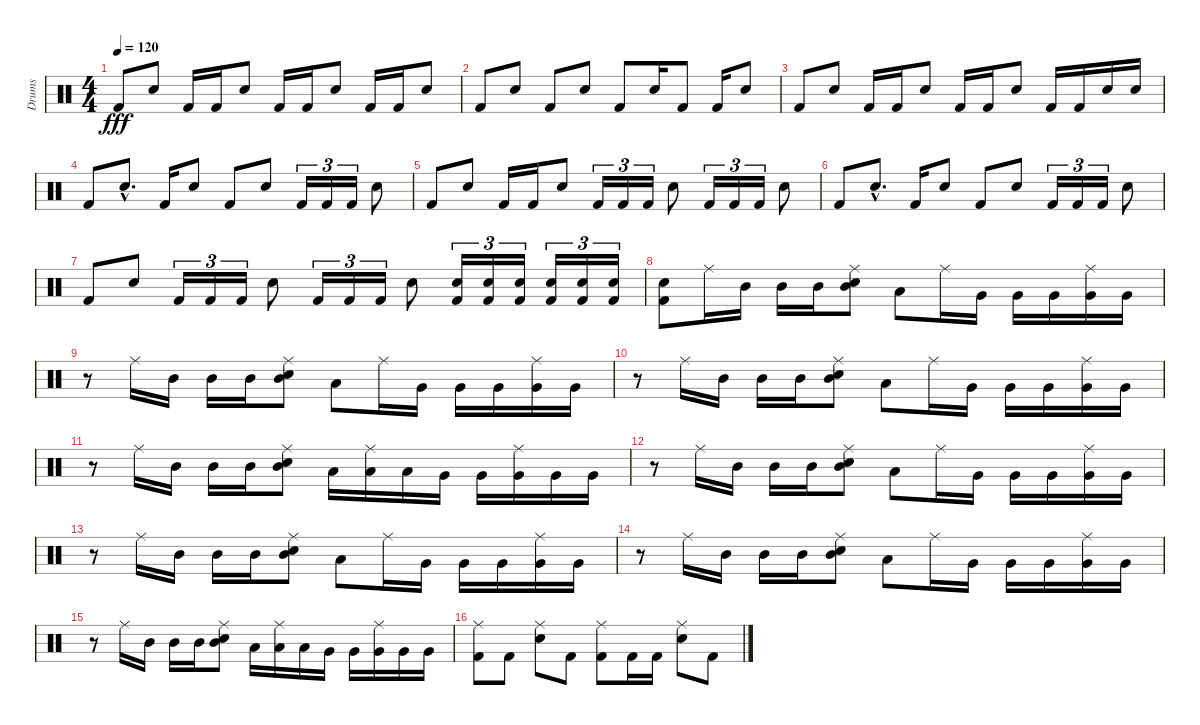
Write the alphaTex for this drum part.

\track ("Drums" "Drums") {instrument percussion}
\staff {score}
\articulation defaults
\ts (4 4)
\tempo 120
\clef neutral
\ks c "Kick (hit) 2".8{dy fff} "Snare (hit) 2".8 "Kick (hit) 2".16 "Kick (hit) 2".16 "Snare (hit) 2".8 "Kick (hit) 2".16 "Kick (hit) 2".16 "Snare (hit) 2".8 "Kick (hit) 2".16 "Kick (hit) 2".16 "Snare (hit) 2".8
|
"Kick (hit) 2".8 "Snare (hit) 2".8 "Kick (hit) 2".8 "Snare (hit) 2".8 "Kick (hit) 2".8 "Snare (hit) 2".16 "Kick (hit) 2".8 "Kick (hit) 2".16 "Snare (hit) 2".8 |
"Kick (hit) 2".8 "Snare (hit) 2".8 "Kick (hit) 2".16 "Kick (hit) 2".16 "Snare (hit) 2".8 "Kick (hit) 2".16 "Kick (hit) 2".16 "Snare (hit) 2".8 "Kick (hit) 2".16 "Kick (hit) 2".16 "Snare (hit) 2".16 "Snare (hit) 2".16 |
"Kick (hit) 2".8 "Snare (hit) 2"{hac}.8{d} "Kick (hit) 2".16 "Snare (hit) 2".8 "Kick (hit) 2".8 "Snare (hit) 2".8 "Kick (hit) 2".16{tu (3 2)} "Kick (hit) 2".16{tu (3 2)} "Kick (hit) 2".16{tu (3 2)} "Snare (hit) 2".8 |
"Kick (hit) 2".8 "Snare (hit) 2".8 "Kick (hit) 2".16 "Kick (hit) 2".16 "Snare (hit) 2".8 "Kick (hit) 2".16{tu (3 2)} "Kick (hit) 2".16{tu (3 2)} "Kick (hit) 2".16{tu (3 2)} "Snare (hit) 2".8 "Kick (hit) 2".16{tu (3 2)} "Kick (hit) 2".16{tu (3 2)} "Kick (hit) 2".16{tu (3 2)} "Snare (hit) 2".8 |
"Kick (hit) 2".8 "Snare (hit) 2"{hac}.8{d} "Kick (hit) 2".16 "Snare (hit) 2".8 "Kick (hit) 2".8 "Snare (hit) 2".8 "Kick (hit) 2".16{tu (3 2)} "Kick (hit) 2".16{tu (3 2)} "Kick (hit) 2".16{tu (3 2)} "Snare (hit) 2".8 |
"Kick (hit) 2".8 "Snare (hit) 2".8 "Kick (hit) 2".16{tu (3 2)} "Kick (hit) 2".16{tu (3 2)} "Kick (hit) 2".16{tu (3 2)} "Snare (hit) 2".8 "Kick (hit) 2".16{tu (3 2)} "Kick (hit) 2".16{tu (3 2)} "Kick (hit) 2".16{tu (3 2)} "Snare (hit) 2".8 ("Snare (hit) 2" "Kick (hit) 2").16{tu (3 2)} ("Snare (hit) 2" "Kick (hit) 2").16{tu (3 2)} ("Snare (hit) 2" "Kick (hit) 2").16{tu (3 2)} ("Snare (hit) 2" "Kick (hit) 2").16{tu (3 2)} ("Snare (hit) 2" "Kick (hit) 2").16{tu (3 2)} ("Snare (hit) 2" "Kick (hit) 2").16{tu (3 2)} |
("Snare (hit) 2" "Kick (hit) 2").8 "Ride (middle)".16 "Mid Tom (hit)".16 "Mid Tom (hit)".16 "Mid Tom (hit)".16 ("Ride (middle)" "Snare (hit) 2" "Mid Tom (hit)").8 "Low Tom (hit)".8 "Ride (middle)".16 "Very Low Tom (hit)".16 "Very Low Tom (hit)".16 "Very Low Tom (hit)".16 ("Ride (middle)" "Very Low Tom (hit)").16 "Very Low Tom (hit)".16 |
r.8 "Ride (middle)".16 "Mid Tom (hit)".16 "Mid Tom (hit)".16 "Mid Tom (hit)".16 ("Ride (middle)" "Snare (hit) 2" "Mid Tom (hit)").8 "Low Tom (hit)".8 "Ride (middle)".16 "Very Low Tom (hit)".16 "Very Low Tom (hit)".16 "Very Low Tom (hit)".16 ("Ride (middle)" "Very Low Tom (hit)").16 "Very Low Tom (hit)".16 |
r.8 "Ride (middle)".16 "Mid Tom (hit)".16 "Mid Tom (hit)".16 "Mid Tom (hit)".16 ("Ride (middle)" "Snare (hit) 2" "Mid Tom (hit)").8 "Low Tom (hit)".8 "Ride (middle)".16 "Very Low Tom (hit)".16 "Very Low Tom (hit)".16 "Very Low Tom (hit)".16 ("Ride (middle)" "Very Low Tom (hit)").16 "Very Low Tom (hit)".16 |
r.8 "Ride (middle)".16 "Mid Tom (hit)".16 "Mid Tom (hit)".16 "Mid Tom (hit)".16 ("Ride (middle)" "Snare (hit) 2" "Mid Tom (hit)").8 "Low Tom (hit)".16 ("Ride (middle)" "Low Tom (hit)").16 "Low Tom (hit)".16 "Very Low Tom (hit)".16 "Very Low Tom (hit)".16 ("Ride (middle)" "Very Low Tom (hit)").16 "Very Low Tom (hit)".16 "Very Low Tom (hit)".16 |
r.8 "Ride (middle)".16 "Mid Tom (hit)".16 "Mid Tom (hit)".16 "Mid Tom (hit)".16 ("Ride (middle)" "Snare (hit) 2" "Mid Tom (hit)").8 "Low Tom (hit)".8 "Ride (middle)".16 "Very Low Tom (hit)".16 "Very Low Tom (hit)".16 "Very Low Tom (hit)".16 ("Ride (middle)" "Very Low Tom (hit)").16 "Very Low Tom (hit)".16 |
r.8 "Ride (middle)".16 "Mid Tom (hit)".16 "Mid Tom (hit)".16 "Mid Tom (hit)".16 ("Ride (middle)" "Snare (hit) 2" "Mid Tom (hit)").8 "Low Tom (hit)".8 "Ride (middle)".16 "Very Low Tom (hit)".16 "Very Low Tom (hit)".16 "Very Low Tom (hit)".16 ("Ride (middle)" "Very Low Tom (hit)").16 "Very Low Tom (hit)".16 |
r.8 "Ride (middle)".16 "Mid Tom (hit)".16 "Mid Tom (hit)".16 "Mid Tom (hit)".16 ("Ride (middle)" "Snare (hit) 2" "Mid Tom (hit)").8 "Low Tom (hit)".8 "Ride (middle)".16 "Very Low Tom (hit)".16 "Very Low Tom (hit)".16 "Very Low Tom (hit)".16 ("Ride (middle)" "Very Low Tom (hit)").16 "Very Low Tom (hit)".16 |
r.8 "Ride (middle)".16 "Mid Tom (hit)".16 "Mid Tom (hit)".16 "Mid Tom (hit)".16 ("Ride (middle)" "Snare (hit) 2" "Mid Tom (hit)").8 "Low Tom (hit)".16 ("Ride (middle)" "Low Tom (hit)").16 "Low Tom (hit)".16 "Very Low Tom (hit)".16 "Very Low Tom (hit)".16 ("Ride (middle)" "Very Low Tom (hit)").16 "Very Low Tom (hit)".16 "Very Low Tom (hit)".16 |
("Ride (middle)" "Kick (hit) 2").8 "Kick (hit) 2".8 ("Ride (middle)" "Electric Snare (hit)").8 "Kick (hit) 2".8 ("Ride (middle)" "Kick (hit) 2").8 "Kick (hit) 2".16 "Kick (hit) 2".16 ("Ride (middle)" "Electric Snare (hit)").8 "Kick (hit) 2".8
